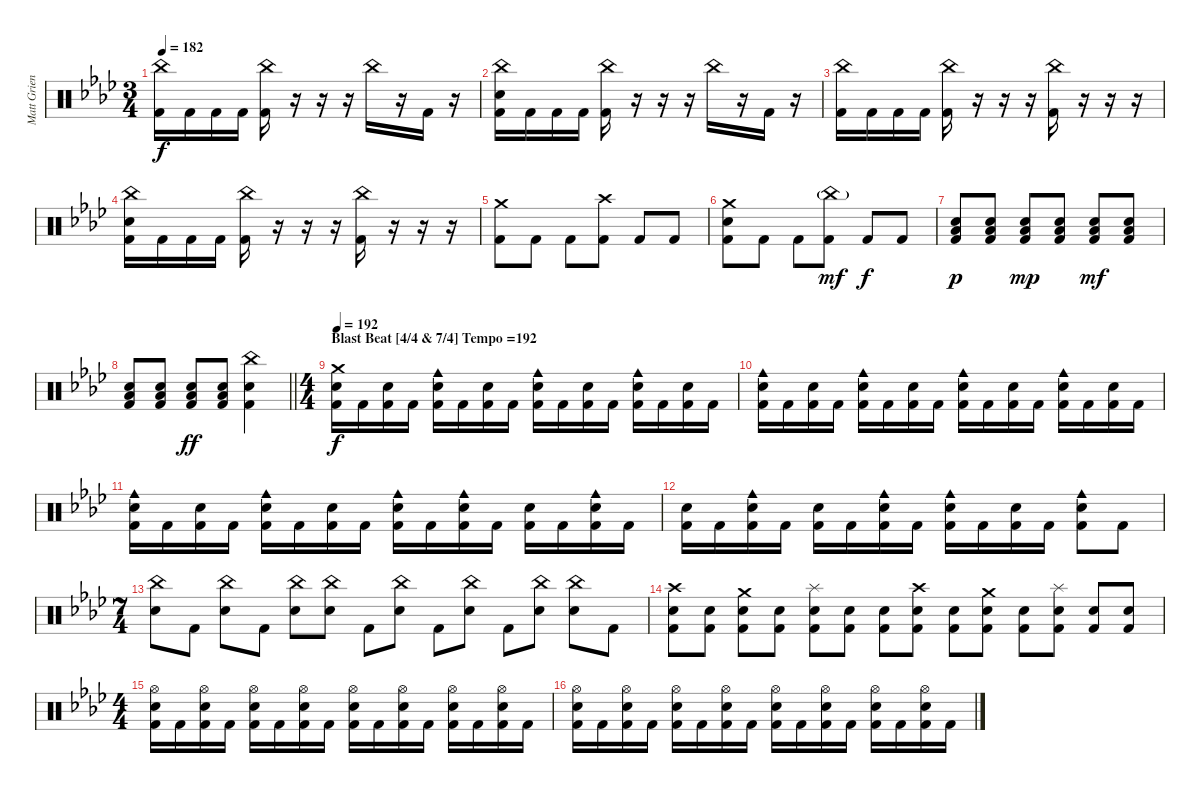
\track ("Matt Griener [Drum Kit]" "Matt Grien") {instrument percussion}
\staff {score}
\articulation defaults
\ts (3 4)
\tempo 182
\clef neutral
\ks fminor
("China (hit)" "Kick (hit) 2").16{dy f} "Kick (hit) 2".16 "Kick (hit) 2".16 "Kick (hit) 2".16 ("China (hit)" "Kick (hit) 2").16 r.16 r.16 r.16 "China (hit)".16 r.16 "Kick (hit) 2".16 r.16 |
("China (hit)" "Electric Snare (hit)" "Kick (hit) 2").16 "Kick (hit) 2".16 "Kick (hit) 2".16 "Kick (hit) 2".16 ("China (hit)" "Kick (hit) 2").16 r.16 r.16 r.16 "China (hit)".16 r.16 "Kick (hit) 2".16 r.16 |
("China (hit)" "Kick (hit) 2").16 "Kick (hit) 2".16 "Kick (hit) 2".16 "Kick (hit) 2".16 ("China (hit)" "Kick (hit) 2").16 r.16 r.16 r.16 ("China (hit)" "Kick (hit) 2").16 r.16 r.16 r.16 |
("China (hit)" "Electric Snare (hit)" "Kick (hit) 2").16 "Kick (hit) 2".16 "Kick (hit) 2".16 "Kick (hit) 2".16 ("China (hit)" "Kick (hit) 2").16 r.16 r.16 r.16 ("China (hit)" "Kick (hit) 2").16 r.16 r.16 r.16 |
("Crash medium (hit)" "Kick (hit) 2").8 "Kick (hit) 2".8 "Kick (hit) 2".8 ("Crash high (hit)" "Kick (hit) 2").8 "Kick (hit) 2".8 "Kick (hit) 2".8 |
("Crash medium (hit)" "Electric Snare (hit)" "Kick (hit) 2").8 "Kick (hit) 2".8 "Kick (hit) 2".8 ("China (hit)"{g} "Kick (hit) 2").8{dy mf} "Kick (hit) 2".8{dy f} "Kick (hit) 2".8 |
("Electric Snare (hit)" "Low Floor Tom (hit)" "Kick (hit) 2").8{dy p} ("Electric Snare (hit)" "Low Floor Tom (hit)" "Kick (hit) 2").8 ("Electric Snare (hit)" "Low Floor Tom (hit)" "Kick (hit) 2").8{dy mp} ("Electric Snare (hit)" "Low Floor Tom (hit)" "Kick (hit) 2").8 ("Electric Snare (hit)" "Low Floor Tom (hit)" "Kick (hit) 2").8{dy mf} ("Electric Snare (hit)" "Low Floor Tom (hit)" "Kick (hit) 2").8 |
\barLineRight lightlight
("Electric Snare (hit)" "Low Floor Tom (hit)" "Kick (hit) 2").8 ("Electric Snare (hit)" "Low Floor Tom (hit)" "Kick (hit) 2").8 ("Electric Snare (hit)" "Low Floor Tom (hit)" "Kick (hit) 2").8{dy ff} ("Electric Snare (hit)" "Low Floor Tom (hit)" "Kick (hit) 2").8 ("China (hit)" "Electric Snare (hit)" "Kick (hit) 2").4 |
\ts (4 4)
\section ("" "Blast Beat [4/4 & 7/4] Tempo =192")
\tempo 192
("Crash medium (hit)" "Electric Snare (hit)" "Kick (hit) 2").16{dy f} "Kick (hit) 2".16 ("Electric Snare (hit)" "Kick (hit) 2").16 "Kick (hit) 2".16 ("Cowbell medium (hit)" "Electric Snare (hit)" "Kick (hit) 2").16 "Kick (hit) 2".16 ("Electric Snare (hit)" "Kick (hit) 2").16 "Kick (hit) 2".16 ("Cowbell medium (hit)" "Electric Snare (hit)" "Kick (hit) 2").16 "Kick (hit) 2".16 ("Electric Snare (hit)" "Kick (hit) 2").16 "Kick (hit) 2".16 ("Cowbell medium (hit)" "Electric Snare (hit)" "Kick (hit) 2").16 "Kick (hit) 2".16 ("Electric Snare (hit)" "Kick (hit) 2").16 "Kick (hit) 2".16 |
("Cowbell medium (hit)" "Electric Snare (hit)" "Kick (hit) 2").16 "Kick (hit) 2".16 ("Electric Snare (hit)" "Kick (hit) 2").16 "Kick (hit) 2".16 ("Cowbell medium (hit)" "Electric Snare (hit)" "Kick (hit) 2").16 "Kick (hit) 2".16 ("Electric Snare (hit)" "Kick (hit) 2").16 "Kick (hit) 2".16 ("Cowbell medium (hit)" "Electric Snare (hit)" "Kick (hit) 2").16 "Kick (hit) 2".16 ("Electric Snare (hit)" "Kick (hit) 2").16 "Kick (hit) 2".16 ("Cowbell medium (hit)" "Electric Snare (hit)" "Kick (hit) 2").16 "Kick (hit) 2".16 ("Electric Snare (hit)" "Kick (hit) 2").16 "Kick (hit) 2".16 |
("Cowbell medium (hit)" "Electric Snare (hit)" "Kick (hit) 2").16 "Kick (hit) 2".16 ("Electric Snare (hit)" "Kick (hit) 2").16 "Kick (hit) 2".16 ("Cowbell medium (hit)" "Electric Snare (hit)" "Kick (hit) 2").16 "Kick (hit) 2".16 ("Electric Snare (hit)" "Kick (hit) 2").16 "Kick (hit) 2".16 ("Cowbell medium (hit)" "Electric Snare (hit)" "Kick (hit) 2").16 "Kick (hit) 2".16 ("Cowbell medium (hit)" "Electric Snare (hit)" "Kick (hit) 2").16 "Kick (hit) 2".16 ("Electric Snare (hit)" "Kick (hit) 2").16 "Kick (hit) 2".16 ("Cowbell medium (hit)" "Electric Snare (hit)" "Kick (hit) 2").16 "Kick (hit) 2".16 |
("Electric Snare (hit)" "Kick (hit) 2").16 "Kick (hit) 2".16 ("Cowbell medium (hit)" "Electric Snare (hit)" "Kick (hit) 2").16 "Kick (hit) 2".16 ("Electric Snare (hit)" "Kick (hit) 2").16 "Kick (hit) 2".16 ("Cowbell medium (hit)" "Electric Snare (hit)" "Kick (hit) 2").16 "Kick (hit) 2".16 ("Cowbell medium (hit)" "Electric Snare (hit)" "Kick (hit) 2").16 "Kick (hit) 2".16 ("Electric Snare (hit)" "Kick (hit) 2").16 "Kick (hit) 2".16 ("Cowbell medium (hit)" "Electric Snare (hit)" "Kick (hit) 2").8 "Kick (hit) 2".8 |
\ts (7 4)
("China (hit)" "Electric Snare (hit)").8 "Kick (hit) 2".8 ("China (hit)" "Electric Snare (hit)").8 "Kick (hit) 2".8 ("China (hit)" "Electric Snare (hit)").8 ("China (hit)" "Electric Snare (hit)").8 "Kick (hit) 2".8 ("China (hit)" "Electric Snare (hit)").8 "Kick (hit) 2".8 ("China (hit)" "Electric Snare (hit)").8 "Kick (hit) 2".8 ("China (hit)" "Electric Snare (hit)").8 ("China (hit)" "Electric Snare (hit)").8 "Kick (hit) 2".8 |
("Crash high (hit)" "Electric Snare (hit)" "Kick (hit) 2").8 ("Electric Snare (hit)" "Kick (hit) 2").8 ("Crash medium (hit)" "Electric Snare (hit)" "Kick (hit) 2").8 ("Electric Snare (hit)" "Kick (hit) 2").8 ("Splash (hit)" "Electric Snare (hit)" "Kick (hit) 2").8 ("Electric Snare (hit)" "Kick (hit) 2").8 ("Electric Snare (hit)" "Kick (hit) 2").8 ("Crash high (hit)" "Electric Snare (hit)" "Kick (hit) 2").8 ("Electric Snare (hit)" "Kick (hit) 2").8 ("Crash medium (hit)" "Electric Snare (hit)" "Kick (hit) 2").8 ("Electric Snare (hit)" "Kick (hit) 2").8 ("Splash (hit)" "Electric Snare (hit)" "Kick (hit) 2").8 ("Electric Snare (hit)" "Kick (hit) 2").8 ("Electric Snare (hit)" "Kick (hit) 2").8 |
\ts (4 4)
("Hi-Hat (open)" "Electric Snare (hit)" "Kick (hit) 2").16 "Kick (hit) 2".16 ("Hi-Hat (open)" "Electric Snare (hit)" "Kick (hit) 2").16 "Kick (hit) 2".16 ("Hi-Hat (open)" "Electric Snare (hit)" "Kick (hit) 2").16 "Kick (hit) 2".16 ("Hi-Hat (open)" "Electric Snare (hit)" "Kick (hit) 2").16 "Kick (hit) 2".16 ("Hi-Hat (open)" "Electric Snare (hit)" "Kick (hit) 2").16 "Kick (hit) 2".16 ("Hi-Hat (open)" "Electric Snare (hit)" "Kick (hit) 2").16 "Kick (hit) 2".16 ("Hi-Hat (open)" "Electric Snare (hit)" "Kick (hit) 2").16 "Kick (hit) 2".16 ("Hi-Hat (open)" "Electric Snare (hit)" "Kick (hit) 2").16 "Kick (hit) 2".16 |
("Hi-Hat (open)" "Electric Snare (hit)" "Kick (hit) 2").16 "Kick (hit) 2".16 ("Hi-Hat (open)" "Electric Snare (hit)" "Kick (hit) 2").16 "Kick (hit) 2".16 ("Hi-Hat (open)" "Electric Snare (hit)" "Kick (hit) 2").16 "Kick (hit) 2".16 ("Hi-Hat (open)" "Electric Snare (hit)" "Kick (hit) 2").16 "Kick (hit) 2".16 ("Hi-Hat (open)" "Electric Snare (hit)" "Kick (hit) 2").16 "Kick (hit) 2".16 ("Hi-Hat (open)" "Electric Snare (hit)" "Kick (hit) 2").16 "Kick (hit) 2".16 ("Hi-Hat (open)" "Electric Snare (hit)" "Kick (hit) 2").16 "Kick (hit) 2".16 ("Hi-Hat (open)" "Electric Snare (hit)" "Kick (hit) 2").16 "Kick (hit) 2".16
